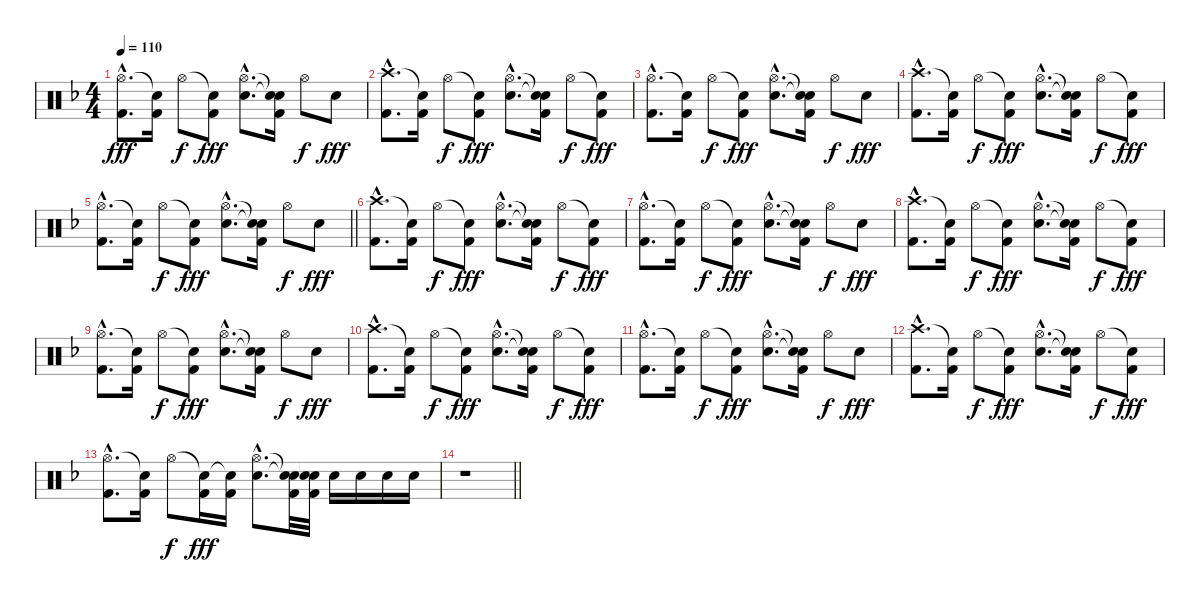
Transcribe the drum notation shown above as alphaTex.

\track "" {instrument percussion}
\staff {score}
\articulation defaults
\ts (4 4)
\tempo 110
\clef neutral
\ks dminor
("Hi-Hat (open)"{hac} "Kick (hit) 2"{hac}).8{d dy fff} ("Snare (hit)"{t} "Kick (hit) 2").16 "Hi-Hat (open)".8{dy f} ("Snare (hit)"{t} "Kick (hit) 2").8{dy fff} ("Hi-Hat (open)"{hac} "Electric Snare (hit)"{hac}).8{d} ("Snare (hit)"{t} "Snare (hit)"{t} "Kick (hit) 2").16 "Hi-Hat (open)".8{dy f} "Electric Snare (hit)".8{dy fff} |
("Crash high (hit)"{hac} "Kick (hit) 2"{hac}).8{d} ("Snare (hit)"{t} "Kick (hit) 2").16 "Hi-Hat (open)".8{dy f} ("Snare (hit)"{t} "Kick (hit) 2").8{dy fff} ("Hi-Hat (open)"{hac} "Electric Snare (hit)"{hac}).8{d} ("Snare (hit)"{t} "Snare (hit)"{t} "Kick (hit) 2").16 "Hi-Hat (open)".8{dy f} ("Snare (hit)"{t} "Kick (hit) 2").8{dy fff} |
("Hi-Hat (open)"{hac} "Kick (hit) 2"{hac}).8{d} ("Snare (hit)"{t} "Kick (hit) 2").16 "Hi-Hat (open)".8{dy f} ("Snare (hit)"{t} "Kick (hit) 2").8{dy fff} ("Hi-Hat (open)"{hac} "Electric Snare (hit)"{hac}).8{d} ("Snare (hit)"{t} "Snare (hit)"{t} "Kick (hit) 2").16 "Hi-Hat (open)".8{dy f} "Electric Snare (hit)".8{dy fff} |
("Crash high (hit)"{hac} "Kick (hit) 2"{hac}).8{d} ("Snare (hit)"{t} "Kick (hit) 2").16 "Hi-Hat (open)".8{dy f} ("Snare (hit)"{t} "Kick (hit) 2").8{dy fff} ("Hi-Hat (open)"{hac} "Electric Snare (hit)"{hac}).8{d} ("Snare (hit)"{t} "Snare (hit)"{t} "Kick (hit) 2").16 "Hi-Hat (open)".8{dy f} ("Snare (hit)"{t} "Kick (hit) 2").8{dy fff} |
\barLineRight lightlight
("Hi-Hat (open)"{hac} "Kick (hit) 2"{hac}).8{d} ("Snare (hit)"{t} "Kick (hit) 2").16 "Hi-Hat (open)".8{dy f} ("Snare (hit)"{t} "Kick (hit) 2").8{dy fff} ("Hi-Hat (open)"{hac} "Electric Snare (hit)"{hac}).8{d} ("Snare (hit)"{t} "Snare (hit)"{t} "Kick (hit) 2").16 "Hi-Hat (open)".8{dy f} "Electric Snare (hit)".8{dy fff} |
("Crash high (hit)"{hac} "Kick (hit) 2"{hac}).8{d} ("Snare (hit)"{t} "Kick (hit) 2").16 "Hi-Hat (open)".8{dy f} ("Snare (hit)"{t} "Kick (hit) 2").8{dy fff} ("Hi-Hat (open)"{hac} "Electric Snare (hit)"{hac}).8{d} ("Snare (hit)"{t} "Snare (hit)"{t} "Kick (hit) 2").16 "Hi-Hat (open)".8{dy f} ("Snare (hit)"{t} "Kick (hit) 2").8{dy fff} |
("Hi-Hat (open)"{hac} "Kick (hit) 2"{hac}).8{d} ("Snare (hit)"{t} "Kick (hit) 2").16 "Hi-Hat (open)".8{dy f} ("Snare (hit)"{t} "Kick (hit) 2").8{dy fff} ("Hi-Hat (open)"{hac} "Electric Snare (hit)"{hac}).8{d} ("Snare (hit)"{t} "Snare (hit)"{t} "Kick (hit) 2").16 "Hi-Hat (open)".8{dy f} "Electric Snare (hit)".8{dy fff} |
("Crash high (hit)"{hac} "Kick (hit) 2"{hac}).8{d} ("Snare (hit)"{t} "Kick (hit) 2").16 "Hi-Hat (open)".8{dy f} ("Snare (hit)"{t} "Kick (hit) 2").8{dy fff} ("Hi-Hat (open)"{hac} "Electric Snare (hit)"{hac}).8{d} ("Snare (hit)"{t} "Snare (hit)"{t} "Kick (hit) 2").16 "Hi-Hat (open)".8{dy f} ("Snare (hit)"{t} "Kick (hit) 2").8{dy fff} |
("Hi-Hat (open)"{hac} "Kick (hit) 2"{hac}).8{d} ("Snare (hit)"{t} "Kick (hit) 2").16 "Hi-Hat (open)".8{dy f} ("Snare (hit)"{t} "Kick (hit) 2").8{dy fff} ("Hi-Hat (open)"{hac} "Electric Snare (hit)"{hac}).8{d} ("Snare (hit)"{t} "Snare (hit)"{t} "Kick (hit) 2").16 "Hi-Hat (open)".8{dy f} "Electric Snare (hit)".8{dy fff} |
("Crash high (hit)"{hac} "Kick (hit) 2"{hac}).8{d} ("Snare (hit)"{t} "Kick (hit) 2").16 "Hi-Hat (open)".8{dy f} ("Snare (hit)"{t} "Kick (hit) 2").8{dy fff} ("Hi-Hat (open)"{hac} "Electric Snare (hit)"{hac}).8{d} ("Snare (hit)"{t} "Snare (hit)"{t} "Kick (hit) 2").16 "Hi-Hat (open)".8{dy f} ("Snare (hit)"{t} "Kick (hit) 2").8{dy fff} |
("Hi-Hat (open)"{hac} "Kick (hit) 2"{hac}).8{d} ("Snare (hit)"{t} "Kick (hit) 2").16 "Hi-Hat (open)".8{dy f} ("Snare (hit)"{t} "Kick (hit) 2").8{dy fff} ("Hi-Hat (open)"{hac} "Electric Snare (hit)"{hac}).8{d} ("Snare (hit)"{t} "Snare (hit)"{t} "Kick (hit) 2").16 "Hi-Hat (open)".8{dy f} "Electric Snare (hit)".8{dy fff} |
("Crash high (hit)"{hac} "Kick (hit) 2"{hac}).8{d} ("Snare (hit)"{t} "Kick (hit) 2").16 "Hi-Hat (open)".8{dy f} ("Snare (hit)"{t} "Kick (hit) 2").8{dy fff} ("Hi-Hat (open)"{hac} "Electric Snare (hit)"{hac}).8{d} ("Snare (hit)"{t} "Snare (hit)"{t} "Kick (hit) 2").16 "Hi-Hat (open)".8{dy f} ("Snare (hit)"{t} "Kick (hit) 2").8{dy fff} |
("Hi-Hat (open)"{hac} "Kick (hit) 2"{hac}).8{d} ("Snare (hit)"{t} "Kick (hit) 2").16 "Hi-Hat (open)".8{dy f} ("Snare (hit)"{t} "Kick (hit) 2").16{dy fff} ("Snare (hit)"{t} "Kick (hit) 2").16 ("Hi-Hat (open)"{hac} "Electric Snare (hit)"{hac}).8{d} ("Snare (hit)"{t} "Snare (hit)"{t} "Kick (hit) 2").32 ("Snare (hit)"{t} "Snare (hit)"{t} "Kick (hit) 2").32 "Electric Snare (hit)".16 "Electric Snare (hit)".16 "Electric Snare (hit)".16 "Electric Snare (hit)".16 |
\barLineRight lightlight
r.1
